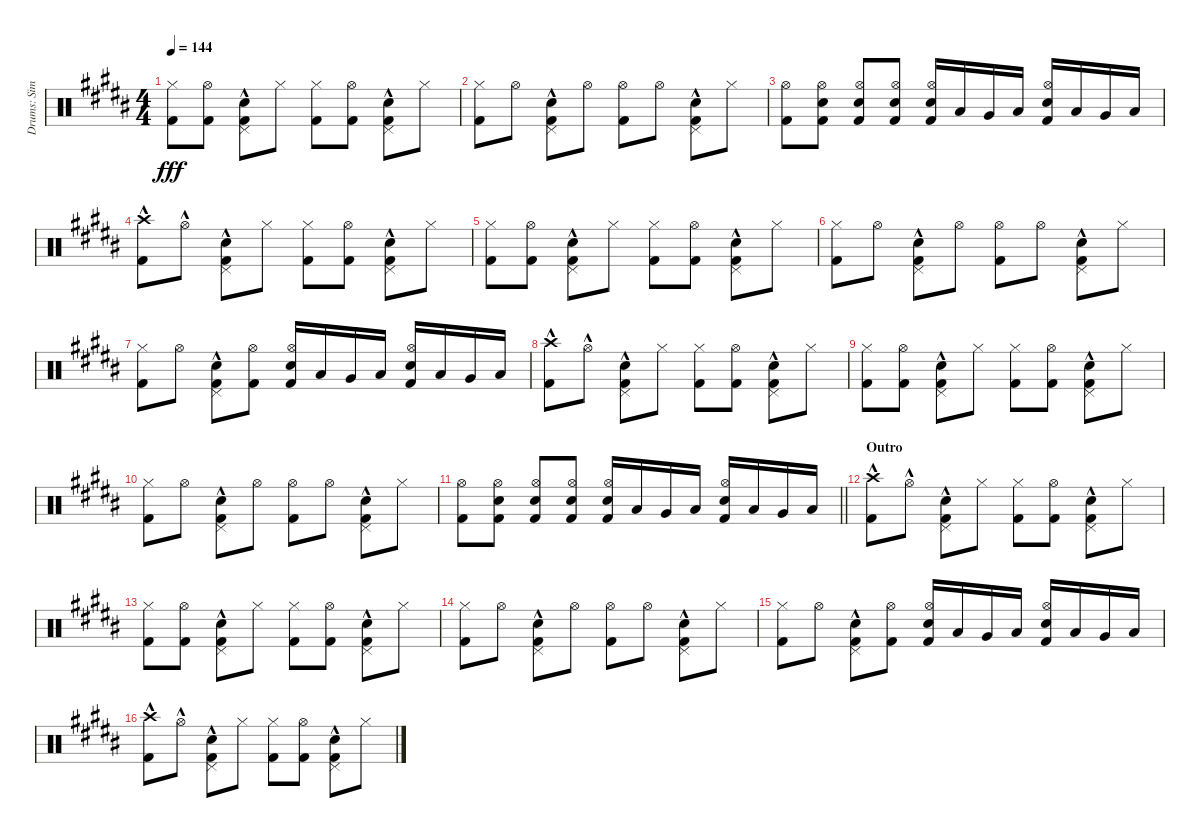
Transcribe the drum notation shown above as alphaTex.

\track ("Drums: Simon" "Drums: Sim") {instrument percussion}
\staff {score}
\articulation defaults
\ts (4 4)
\tempo 144
\clef neutral
\ks b
("Hi-Hat (closed)" "Kick (hit) 2").8{dy fff} ("Hi-Hat (open)" "Kick (hit) 2").8 ("Pedal Hi-Hat (hit)"{hac} "Snare (hit) 2"{hac} "Kick (hit) 2"{hac}).8 "Hi-Hat (closed)".8 ("Hi-Hat (closed)" "Kick (hit) 2").8 ("Hi-Hat (open)" "Kick (hit) 2").8 ("Pedal Hi-Hat (hit)"{hac} "Snare (hit) 2"{hac} "Kick (hit) 2"{hac}).8 "Hi-Hat (closed)".8 |
("Hi-Hat (closed)" "Kick (hit) 2").8 "Hi-Hat (open)".8 ("Pedal Hi-Hat (hit)"{hac} "Snare (hit) 2"{hac} "Kick (hit) 2"{hac}).8 "Hi-Hat (open)".8 ("Hi-Hat (open)" "Kick (hit) 2").8 "Hi-Hat (open)".8 ("Pedal Hi-Hat (hit)"{hac} "Snare (hit) 2"{hac} "Kick (hit) 2"{hac}).8 "Hi-Hat (closed)".8 |
("Hi-Hat (open)" "Kick (hit) 2").8 ("Hi-Hat (open)" "Snare (hit) 2" "Kick (hit) 2").8 ("Hi-Hat (open)" "Snare (hit) 2" "Kick (hit) 2").8 ("Hi-Hat (open)" "Snare (hit) 2" "Kick (hit) 2").8 ("Hi-Hat (open)" "Snare (hit) 2" "Kick (hit) 2").16 "Low Tom (hit)".16 "Very Low Tom (hit)".16 "Low Floor Tom (hit)".16 ("Hi-Hat (open)" "Snare (hit) 2" "Kick (hit) 2").16 "Low Tom (hit)".16 "Very Low Tom (hit)".16 "Low Floor Tom (hit)".16 |
("Crash high (hit)"{hac} "Kick (hit) 2"{hac}).8 "Hi-Hat (open)"{hac}.8 ("Pedal Hi-Hat (hit)"{hac} "Snare (hit) 2"{hac} "Kick (hit) 2"{hac}).8 "Hi-Hat (closed)".8 ("Hi-Hat (closed)" "Kick (hit) 2").8 ("Hi-Hat (open)" "Kick (hit) 2").8 ("Pedal Hi-Hat (hit)"{hac} "Snare (hit) 2"{hac} "Kick (hit) 2"{hac}).8 "Hi-Hat (closed)".8 |
("Hi-Hat (closed)" "Kick (hit) 2").8 ("Hi-Hat (open)" "Kick (hit) 2").8 ("Pedal Hi-Hat (hit)"{hac} "Snare (hit) 2"{hac} "Kick (hit) 2"{hac}).8 "Hi-Hat (closed)".8 ("Hi-Hat (closed)" "Kick (hit) 2").8 ("Hi-Hat (open)" "Kick (hit) 2").8 ("Pedal Hi-Hat (hit)"{hac} "Snare (hit) 2"{hac} "Kick (hit) 2"{hac}).8 "Hi-Hat (closed)".8 |
("Hi-Hat (closed)" "Kick (hit) 2").8 "Hi-Hat (open)".8 ("Pedal Hi-Hat (hit)"{hac} "Snare (hit) 2"{hac} "Kick (hit) 2"{hac}).8 "Hi-Hat (open)".8 ("Hi-Hat (open)" "Kick (hit) 2").8 "Hi-Hat (open)".8 ("Pedal Hi-Hat (hit)"{hac} "Snare (hit) 2"{hac} "Kick (hit) 2"{hac}).8 "Hi-Hat (closed)".8 |
("Hi-Hat (closed)" "Kick (hit) 2").8 "Hi-Hat (open)".8 ("Pedal Hi-Hat (hit)"{hac} "Snare (hit) 2"{hac} "Kick (hit) 2"{hac}).8 ("Hi-Hat (open)" "Kick (hit) 2").8 ("Hi-Hat (open)" "Snare (hit) 2" "Kick (hit) 2").16 "Low Tom (hit)".16 "Very Low Tom (hit)".16 "Low Floor Tom (hit)".16 ("Hi-Hat (open)" "Snare (hit) 2" "Kick (hit) 2").16 "Low Tom (hit)".16 "Very Low Tom (hit)".16 "Low Floor Tom (hit)".16 |
("Crash high (hit)"{hac} "Kick (hit) 2"{hac}).8 "Hi-Hat (open)"{hac}.8 ("Pedal Hi-Hat (hit)"{hac} "Snare (hit) 2"{hac} "Kick (hit) 2"{hac}).8 "Hi-Hat (closed)".8 ("Hi-Hat (closed)" "Kick (hit) 2").8 ("Hi-Hat (open)" "Kick (hit) 2").8 ("Pedal Hi-Hat (hit)"{hac} "Snare (hit) 2"{hac} "Kick (hit) 2"{hac}).8 "Hi-Hat (closed)".8 |
("Hi-Hat (closed)" "Kick (hit) 2").8 ("Hi-Hat (open)" "Kick (hit) 2").8 ("Pedal Hi-Hat (hit)"{hac} "Snare (hit) 2"{hac} "Kick (hit) 2"{hac}).8 "Hi-Hat (closed)".8 ("Hi-Hat (closed)" "Kick (hit) 2").8 ("Hi-Hat (open)" "Kick (hit) 2").8 ("Pedal Hi-Hat (hit)"{hac} "Snare (hit) 2"{hac} "Kick (hit) 2"{hac}).8 "Hi-Hat (closed)".8 |
("Hi-Hat (closed)" "Kick (hit) 2").8 "Hi-Hat (open)".8 ("Pedal Hi-Hat (hit)"{hac} "Snare (hit) 2"{hac} "Kick (hit) 2"{hac}).8 "Hi-Hat (open)".8 ("Hi-Hat (open)" "Kick (hit) 2").8 "Hi-Hat (open)".8 ("Pedal Hi-Hat (hit)"{hac} "Snare (hit) 2"{hac} "Kick (hit) 2"{hac}).8 "Hi-Hat (closed)".8 |
\barLineRight lightlight
("Hi-Hat (open)" "Kick (hit) 2").8 ("Hi-Hat (open)" "Snare (hit) 2" "Kick (hit) 2").8 ("Hi-Hat (open)" "Snare (hit) 2" "Kick (hit) 2").8 ("Hi-Hat (open)" "Snare (hit) 2" "Kick (hit) 2").8 ("Hi-Hat (open)" "Snare (hit) 2" "Kick (hit) 2").16 "Low Tom (hit)".16 "Very Low Tom (hit)".16 "Low Floor Tom (hit)".16 ("Hi-Hat (open)" "Snare (hit) 2" "Kick (hit) 2").16 "Low Tom (hit)".16 "Very Low Tom (hit)".16 "Low Floor Tom (hit)".16 |
\section ("" "Outro")
("Crash high (hit)"{hac} "Kick (hit) 2"{hac}).8 "Hi-Hat (open)"{hac}.8 ("Pedal Hi-Hat (hit)"{hac} "Snare (hit) 2"{hac} "Kick (hit) 2"{hac}).8 "Hi-Hat (closed)".8 ("Hi-Hat (closed)" "Kick (hit) 2").8 ("Hi-Hat (open)" "Kick (hit) 2").8 ("Pedal Hi-Hat (hit)"{hac} "Snare (hit) 2"{hac} "Kick (hit) 2"{hac}).8 "Hi-Hat (closed)".8 |
("Hi-Hat (closed)" "Kick (hit) 2").8 ("Hi-Hat (open)" "Kick (hit) 2").8 ("Pedal Hi-Hat (hit)"{hac} "Snare (hit) 2"{hac} "Kick (hit) 2"{hac}).8 "Hi-Hat (closed)".8 ("Hi-Hat (closed)" "Kick (hit) 2").8 ("Hi-Hat (open)" "Kick (hit) 2").8 ("Pedal Hi-Hat (hit)"{hac} "Snare (hit) 2"{hac} "Kick (hit) 2"{hac}).8 "Hi-Hat (closed)".8 |
("Hi-Hat (closed)" "Kick (hit) 2").8 "Hi-Hat (open)".8 ("Pedal Hi-Hat (hit)"{hac} "Snare (hit) 2"{hac} "Kick (hit) 2"{hac}).8 "Hi-Hat (open)".8 ("Hi-Hat (open)" "Kick (hit) 2").8 "Hi-Hat (open)".8 ("Pedal Hi-Hat (hit)"{hac} "Snare (hit) 2"{hac} "Kick (hit) 2"{hac}).8 "Hi-Hat (closed)".8 |
("Hi-Hat (closed)" "Kick (hit) 2").8 "Hi-Hat (open)".8 ("Pedal Hi-Hat (hit)"{hac} "Snare (hit) 2"{hac} "Kick (hit) 2"{hac}).8 ("Hi-Hat (open)" "Kick (hit) 2").8 ("Hi-Hat (open)" "Snare (hit) 2" "Kick (hit) 2").16 "Low Tom (hit)".16 "Very Low Tom (hit)".16 "Low Floor Tom (hit)".16 ("Hi-Hat (open)" "Snare (hit) 2" "Kick (hit) 2").16 "Low Tom (hit)".16 "Very Low Tom (hit)".16 "Low Floor Tom (hit)".16 |
("Crash high (hit)"{hac} "Kick (hit) 2"{hac}).8 "Hi-Hat (open)"{hac}.8 ("Pedal Hi-Hat (hit)"{hac} "Snare (hit) 2"{hac} "Kick (hit) 2"{hac}).8 "Hi-Hat (closed)".8 ("Hi-Hat (closed)" "Kick (hit) 2").8 ("Hi-Hat (open)" "Kick (hit) 2").8 ("Pedal Hi-Hat (hit)"{hac} "Snare (hit) 2"{hac} "Kick (hit) 2"{hac}).8 "Hi-Hat (closed)".8
